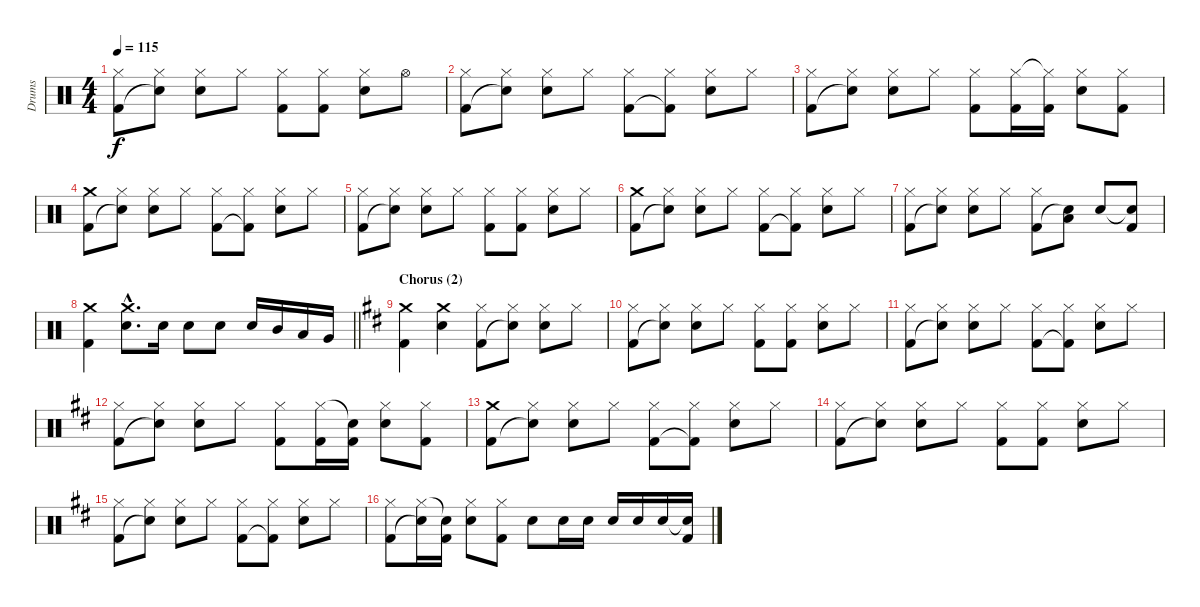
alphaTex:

\track ("Drums" "Drums") {instrument percussion}
\staff {score}
\articulation defaults
\ts (4 4)
\tempo 115
\clef neutral
\ks c
("Hi-Hat (closed)" "Kick (hit) 2").8{dy f} ("Hi-Hat (closed)" "Snare (hit)"{t}).8 ("Hi-Hat (closed)" "Electric Snare (hit)").8 "Hi-Hat (closed)".8 ("Hi-Hat (closed)" "Kick (hit) 2").8 ("Hi-Hat (closed)" "Kick (hit) 2").8 ("Hi-Hat (closed)" "Electric Snare (hit)").8 "Hi-Hat (open)".8 |
("Hi-Hat (closed)" "Kick (hit) 2").8 ("Hi-Hat (closed)" "Snare (hit)"{t}).8 ("Hi-Hat (closed)" "Electric Snare (hit)").8 "Hi-Hat (closed)".8 ("Hi-Hat (closed)" "Kick (hit) 2").8 ("Hi-Hat (closed)" "Kick (hit) 2"{t}).8 ("Hi-Hat (closed)" "Electric Snare (hit)").8 "Hi-Hat (closed)".8 |
("Hi-Hat (closed)" "Kick (hit) 2").8 ("Hi-Hat (closed)" "Snare (hit)"{t}).8 ("Hi-Hat (closed)" "Electric Snare (hit)").8 "Hi-Hat (closed)".8 ("Hi-Hat (closed)" "Kick (hit) 2").8 ("Hi-Hat (closed)" "Kick (hit) 2").16 ("Hi-Hat (closed)"{t} "Kick (hit) 2").16 ("Hi-Hat (closed)" "Electric Snare (hit)").8 ("Hi-Hat (closed)" "Kick (hit) 2").8 |
("Crash medium (hit)" "Kick (hit) 2").8 ("Hi-Hat (closed)" "Snare (hit)"{t}).8 ("Hi-Hat (closed)" "Electric Snare (hit)").8 "Hi-Hat (closed)".8 ("Hi-Hat (closed)" "Kick (hit) 2").8 ("Hi-Hat (closed)" "Kick (hit) 2"{t}).8 ("Hi-Hat (closed)" "Electric Snare (hit)").8 "Hi-Hat (closed)".8 |
("Hi-Hat (closed)" "Kick (hit) 2").8 ("Hi-Hat (closed)" "Snare (hit)"{t}).8 ("Hi-Hat (closed)" "Electric Snare (hit)").8 "Hi-Hat (closed)".8 ("Hi-Hat (closed)" "Kick (hit) 2").8 ("Hi-Hat (closed)" "Kick (hit) 2").8 ("Hi-Hat (closed)" "Electric Snare (hit)").8 "Hi-Hat (closed)".8 |
("Crash medium (hit)" "Kick (hit) 2").8 ("Hi-Hat (closed)" "Snare (hit)"{t}).8 ("Hi-Hat (closed)" "Electric Snare (hit)").8 "Hi-Hat (closed)".8 ("Hi-Hat (closed)" "Kick (hit) 2").8 ("Hi-Hat (closed)" "Kick (hit) 2"{t}).8 ("Hi-Hat (closed)" "Electric Snare (hit)").8 "Hi-Hat (closed)".8 |
("Hi-Hat (closed)" "Kick (hit) 2").8 ("Hi-Hat (closed)" "Snare (hit)"{t}).8 ("Hi-Hat (closed)" "Electric Snare (hit)").8 "Hi-Hat (closed)".8 ("Hi-Hat (closed)" "Kick (hit) 2").8 ("Low Tom (hit)" "Snare (hit)"{t}).8 "Electric Snare (hit)".8 ("Snare (hit)"{t} "Kick (hit) 2").8 |
\barLineRight lightlight
("Crash medium (hit)" "Kick (hit) 2").4 ("Crash medium (hit)"{hac} "Electric Snare (hit)"{hac}).8{d} "Electric Snare (hit)".16 "Electric Snare (hit)".8 "Electric Snare (hit)".8 "Electric Snare (hit)".16 "Mid Tom (hit)".16 "Low Tom (hit)".16 "Very Low Tom (hit)".16 |
\section ("" "Chorus (2)")
\ks d
("Crash medium (hit)" "Kick (hit) 2").4 ("Crash medium (hit)" "Electric Snare (hit)").4 ("Hi-Hat (closed)" "Kick (hit) 2").8 ("Hi-Hat (closed)" "Snare (hit)"{t}).8 ("Hi-Hat (closed)" "Electric Snare (hit)").8 "Hi-Hat (closed)".8 |
("Hi-Hat (closed)" "Kick (hit) 2").8 ("Hi-Hat (closed)" "Snare (hit)"{t}).8 ("Hi-Hat (closed)" "Electric Snare (hit)").8 "Hi-Hat (closed)".8 ("Hi-Hat (closed)" "Kick (hit) 2").8 ("Hi-Hat (closed)" "Kick (hit) 2").8 ("Hi-Hat (closed)" "Electric Snare (hit)").8 "Hi-Hat (closed)".8 |
("Hi-Hat (closed)" "Kick (hit) 2").8 ("Hi-Hat (closed)" "Snare (hit)"{t}).8 ("Hi-Hat (closed)" "Electric Snare (hit)").8 "Hi-Hat (closed)".8 ("Hi-Hat (closed)" "Kick (hit) 2").8 ("Hi-Hat (closed)" "Kick (hit) 2"{t}).8 ("Hi-Hat (closed)" "Electric Snare (hit)").8 "Hi-Hat (closed)".8 |
("Hi-Hat (closed)" "Kick (hit) 2").8 ("Hi-Hat (closed)" "Snare (hit)"{t}).8 ("Hi-Hat (closed)" "Electric Snare (hit)").8 "Hi-Hat (closed)".8 ("Hi-Hat (closed)" "Kick (hit) 2").8 ("Hi-Hat (closed)" "Kick (hit) 2").16 ("Snare (hit)"{t} "Kick (hit) 2").16 ("Hi-Hat (closed)" "Electric Snare (hit)").8 ("Hi-Hat (closed)" "Kick (hit) 2").8 |
("Crash medium (hit)" "Kick (hit) 2").8 ("Hi-Hat (closed)" "Snare (hit)"{t}).8 ("Hi-Hat (closed)" "Electric Snare (hit)").8 "Hi-Hat (closed)".8 ("Hi-Hat (closed)" "Kick (hit) 2").8 ("Hi-Hat (closed)" "Kick (hit) 2"{t}).8 ("Hi-Hat (closed)" "Electric Snare (hit)").8 "Hi-Hat (closed)".8 |
("Hi-Hat (closed)" "Kick (hit) 2").8 ("Hi-Hat (closed)" "Snare (hit)"{t}).8 ("Hi-Hat (closed)" "Electric Snare (hit)").8 "Hi-Hat (closed)".8 ("Hi-Hat (closed)" "Kick (hit) 2").8 ("Hi-Hat (closed)" "Kick (hit) 2").8 ("Hi-Hat (closed)" "Electric Snare (hit)").8 "Hi-Hat (closed)".8 |
("Hi-Hat (closed)" "Kick (hit) 2").8 ("Hi-Hat (closed)" "Snare (hit)"{t}).8 ("Hi-Hat (closed)" "Electric Snare (hit)").8 "Hi-Hat (closed)".8 ("Hi-Hat (closed)" "Kick (hit) 2").8 ("Hi-Hat (closed)" "Kick (hit) 2"{t}).8 ("Hi-Hat (closed)" "Electric Snare (hit)").8 "Hi-Hat (closed)".8 |
("Hi-Hat (closed)" "Kick (hit) 2").8 ("Hi-Hat (closed)" "Snare (hit)"{t}).16 ("Snare (hit)"{t} "Kick (hit) 2").16 ("Hi-Hat (closed)" "Electric Snare (hit)").8 ("Hi-Hat (closed)" "Kick (hit) 2").8 "Electric Snare (hit)".8 "Electric Snare (hit)".16 "Electric Snare (hit)".16 "Electric Snare (hit)".16 "Electric Snare (hit)".16 "Electric Snare (hit)".16 ("Snare (hit)"{t} "Kick (hit) 2").16
